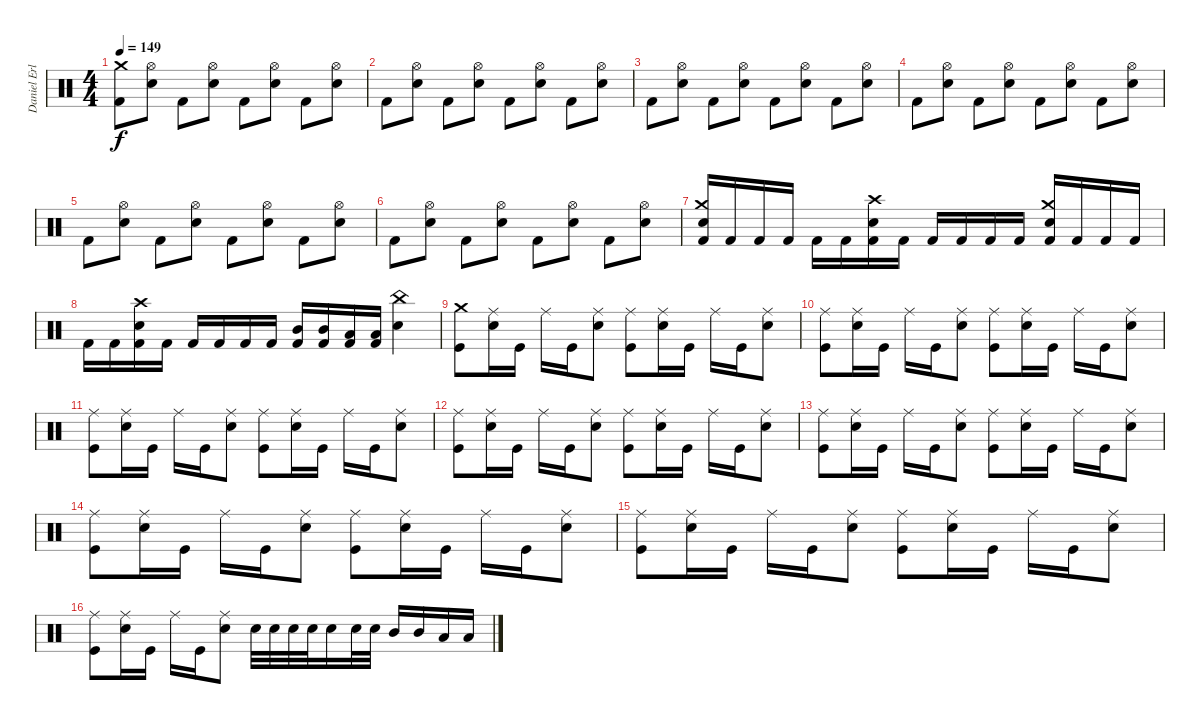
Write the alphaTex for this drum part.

\track ("Daniel Erlandsson" "Daniel Erl") {instrument percussion}
\staff {score}
\articulation defaults
\ts (4 4)
\tempo 149
\clef neutral
\ks c
("Kick (hit) 2" "Crash medium (hit)").8{dy f} ("Electric Snare (hit)" "Hi-Hat (open)").8 "Kick (hit) 2".8 ("Electric Snare (hit)" "Hi-Hat (open)").8 "Kick (hit) 2".8 ("Electric Snare (hit)" "Hi-Hat (open)").8 "Kick (hit) 2".8 ("Electric Snare (hit)" "Hi-Hat (open)").8 |
"Kick (hit) 2".8 ("Electric Snare (hit)" "Hi-Hat (open)").8 "Kick (hit) 2".8 ("Electric Snare (hit)" "Hi-Hat (open)").8 "Kick (hit) 2".8 ("Electric Snare (hit)" "Hi-Hat (open)").8 "Kick (hit) 2".8 ("Electric Snare (hit)" "Hi-Hat (open)").8 |
"Kick (hit) 2".8 ("Electric Snare (hit)" "Hi-Hat (open)").8 "Kick (hit) 2".8 ("Electric Snare (hit)" "Hi-Hat (open)").8 "Kick (hit) 2".8 ("Electric Snare (hit)" "Hi-Hat (open)").8 "Kick (hit) 2".8 ("Electric Snare (hit)" "Hi-Hat (open)").8 |
"Kick (hit) 2".8 ("Electric Snare (hit)" "Hi-Hat (open)").8 "Kick (hit) 2".8 ("Electric Snare (hit)" "Hi-Hat (open)").8 "Kick (hit) 2".8 ("Electric Snare (hit)" "Hi-Hat (open)").8 "Kick (hit) 2".8 ("Electric Snare (hit)" "Hi-Hat (open)").8 |
"Kick (hit) 2".8 ("Electric Snare (hit)" "Hi-Hat (open)").8 "Kick (hit) 2".8 ("Electric Snare (hit)" "Hi-Hat (open)").8 "Kick (hit) 2".8 ("Electric Snare (hit)" "Hi-Hat (open)").8 "Kick (hit) 2".8 ("Electric Snare (hit)" "Hi-Hat (open)").8 |
"Kick (hit) 2".8 ("Electric Snare (hit)" "Hi-Hat (open)").8 "Kick (hit) 2".8 ("Electric Snare (hit)" "Hi-Hat (open)").8 "Kick (hit) 2".8 ("Electric Snare (hit)" "Hi-Hat (open)").8 "Kick (hit) 2".8 ("Electric Snare (hit)" "Hi-Hat (open)").8 |
("Kick (hit) 2" "Electric Snare (hit)" "Crash medium (hit)").16 "Kick (hit) 2".16 "Kick (hit) 2".16 "Kick (hit) 2".16 "Kick (hit) 2".16 "Kick (hit) 2".16 ("Kick (hit) 2" "Electric Snare (hit)" "Crash high (hit)").16 "Kick (hit) 2".16 "Kick (hit) 2".16 "Kick (hit) 2".16 "Kick (hit) 2".16 "Kick (hit) 2".16 ("Kick (hit) 2" "Electric Snare (hit)" "Crash medium (hit)").16 "Kick (hit) 2".16 "Kick (hit) 2".16 "Kick (hit) 2".16 |
"Kick (hit) 2".16 "Kick (hit) 2".16 ("Kick (hit) 2" "Electric Snare (hit)" "Crash high (hit)").16 "Kick (hit) 2".16 "Kick (hit) 2".16 "Kick (hit) 2".16 "Kick (hit) 2".16 "Kick (hit) 2".16 ("Kick (hit) 2" "Mid Tom (hit)").16 ("Kick (hit) 2" "Mid Tom (hit)").16 ("Kick (hit) 2" "Low Tom (hit)").16 ("Kick (hit) 2" "Low Tom (hit)").16 ("Electric Snare (hit)" "China (hit)").4 |
("Kick (hit)" "Crash medium (hit)").8 ("Electric Snare (hit)" "Ride (middle)").16 "Kick (hit)".16 "Ride (middle)".16 "Kick (hit)".16 ("Electric Snare (hit)" "Ride (middle)").8 ("Kick (hit)" "Ride (middle)").8 ("Electric Snare (hit)" "Ride (middle)").16 "Kick (hit)".16 "Ride (middle)".16 "Kick (hit)".16 ("Electric Snare (hit)" "Ride (middle)").8 |
("Kick (hit)" "Ride (middle)").8 ("Electric Snare (hit)" "Ride (middle)").16 "Kick (hit)".16 "Ride (middle)".16 "Kick (hit)".16 ("Electric Snare (hit)" "Ride (middle)").8 ("Kick (hit)" "Ride (middle)").8 ("Electric Snare (hit)" "Ride (middle)").16 "Kick (hit)".16 "Ride (middle)".16 "Kick (hit)".16 ("Electric Snare (hit)" "Ride (middle)").8 |
("Kick (hit)" "Ride (middle)").8 ("Electric Snare (hit)" "Ride (middle)").16 "Kick (hit)".16 "Ride (middle)".16 "Kick (hit)".16 ("Electric Snare (hit)" "Ride (middle)").8 ("Kick (hit)" "Ride (middle)").8 ("Electric Snare (hit)" "Ride (middle)").16 "Kick (hit)".16 "Ride (middle)".16 "Kick (hit)".16 ("Electric Snare (hit)" "Ride (middle)").8 |
("Kick (hit)" "Ride (middle)").8 ("Electric Snare (hit)" "Ride (middle)").16 "Kick (hit)".16 "Ride (middle)".16 "Kick (hit)".16 ("Electric Snare (hit)" "Ride (middle)").8 ("Kick (hit)" "Ride (middle)").8 ("Electric Snare (hit)" "Ride (middle)").16 "Kick (hit)".16 "Ride (middle)".16 "Kick (hit)".16 ("Electric Snare (hit)" "Ride (middle)").8 |
("Kick (hit)" "Ride (middle)").8 ("Electric Snare (hit)" "Ride (middle)").16 "Kick (hit)".16 "Ride (middle)".16 "Kick (hit)".16 ("Electric Snare (hit)" "Ride (middle)").8 ("Kick (hit)" "Ride (middle)").8 ("Electric Snare (hit)" "Ride (middle)").16 "Kick (hit)".16 "Ride (middle)".16 "Kick (hit)".16 ("Electric Snare (hit)" "Ride (middle)").8 |
("Kick (hit)" "Ride (middle)").8 ("Electric Snare (hit)" "Ride (middle)").16 "Kick (hit)".16 "Ride (middle)".16 "Kick (hit)".16 ("Electric Snare (hit)" "Ride (middle)").8 ("Kick (hit)" "Ride (middle)").8 ("Electric Snare (hit)" "Ride (middle)").16 "Kick (hit)".16 "Ride (middle)".16 "Kick (hit)".16 ("Electric Snare (hit)" "Ride (middle)").8 |
("Kick (hit)" "Ride (middle)").8 ("Electric Snare (hit)" "Ride (middle)").16 "Kick (hit)".16 "Ride (middle)".16 "Kick (hit)".16 ("Electric Snare (hit)" "Ride (middle)").8 ("Kick (hit)" "Ride (middle)").8 ("Electric Snare (hit)" "Ride (middle)").16 "Kick (hit)".16 "Ride (middle)".16 "Kick (hit)".16 ("Electric Snare (hit)" "Ride (middle)").8 |
("Kick (hit)" "Ride (middle)").8 ("Electric Snare (hit)" "Ride (middle)").16 "Kick (hit)".16 "Ride (middle)".16 "Kick (hit)".16 ("Electric Snare (hit)" "Ride (middle)").8 "Electric Snare (hit)".32 "Electric Snare (hit)".32 "Electric Snare (hit)".32 "Electric Snare (hit)".32 "Electric Snare (hit)".16 "Electric Snare (hit)".32 "Electric Snare (hit)".32 "Mid Tom (hit)".16 "Mid Tom (hit)".16 "Low Tom (hit)".16 "Low Tom (hit)".16
